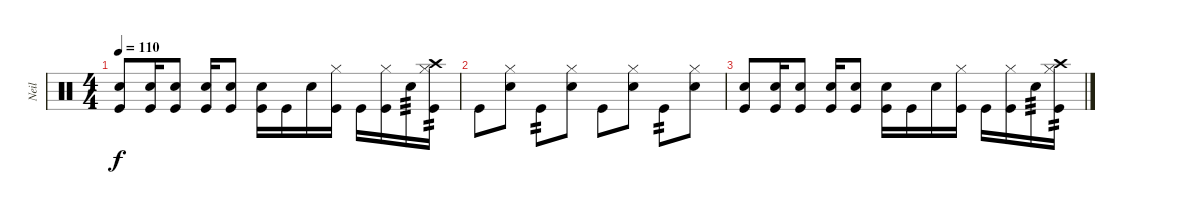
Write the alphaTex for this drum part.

\track ("Neil" "Neil") {instrument percussion}
\staff {score}
\articulation defaults
\ts (4 4)
\tempo 110
\clef neutral
\ks c
("Snare (hit) 2" "Kick (hit)").8{dy f} ("Snare (hit) 2" "Kick (hit)").16 ("Snare (hit) 2" "Kick (hit)").8 ("Snare (hit) 2" "Kick (hit)").16 ("Snare (hit) 2" "Kick (hit)").8 ("Snare (hit) 2" "Kick (hit)").16 "Kick (hit)".16 "Snare (hit) 2".16 ("Hi-Hat (closed)" "Kick (hit)").16 "Kick (hit)".16 ("Hi-Hat (closed)" "Kick (hit)").16 "Snare (hit) 2".16{tp 3} ("Crash high (hit)" "Hi-Hat (closed)" "Kick (hit)").16{tp 2} |
"Kick (hit)".8 ("Hi-Hat (closed)" "Snare (hit) 2").8 "Kick (hit)".8{tp 2} ("Hi-Hat (closed)" "Snare (hit) 2").8 "Kick (hit)".8 ("Hi-Hat (closed)" "Snare (hit) 2").8 "Kick (hit)".8{tp 2} ("Hi-Hat (closed)" "Snare (hit) 2").8 |
("Snare (hit) 2" "Kick (hit)").8 ("Snare (hit) 2" "Kick (hit)").16 ("Snare (hit) 2" "Kick (hit)").8 ("Snare (hit) 2" "Kick (hit)").16 ("Snare (hit) 2" "Kick (hit)").8 ("Snare (hit) 2" "Kick (hit)").16 "Kick (hit)".16 "Snare (hit) 2".16 ("Hi-Hat (closed)" "Kick (hit)").16 "Kick (hit)".16 ("Hi-Hat (closed)" "Kick (hit)").16 "Snare (hit) 2".16{tp 3} ("Crash high (hit)" "Hi-Hat (closed)" "Kick (hit)").16{tp 2}
